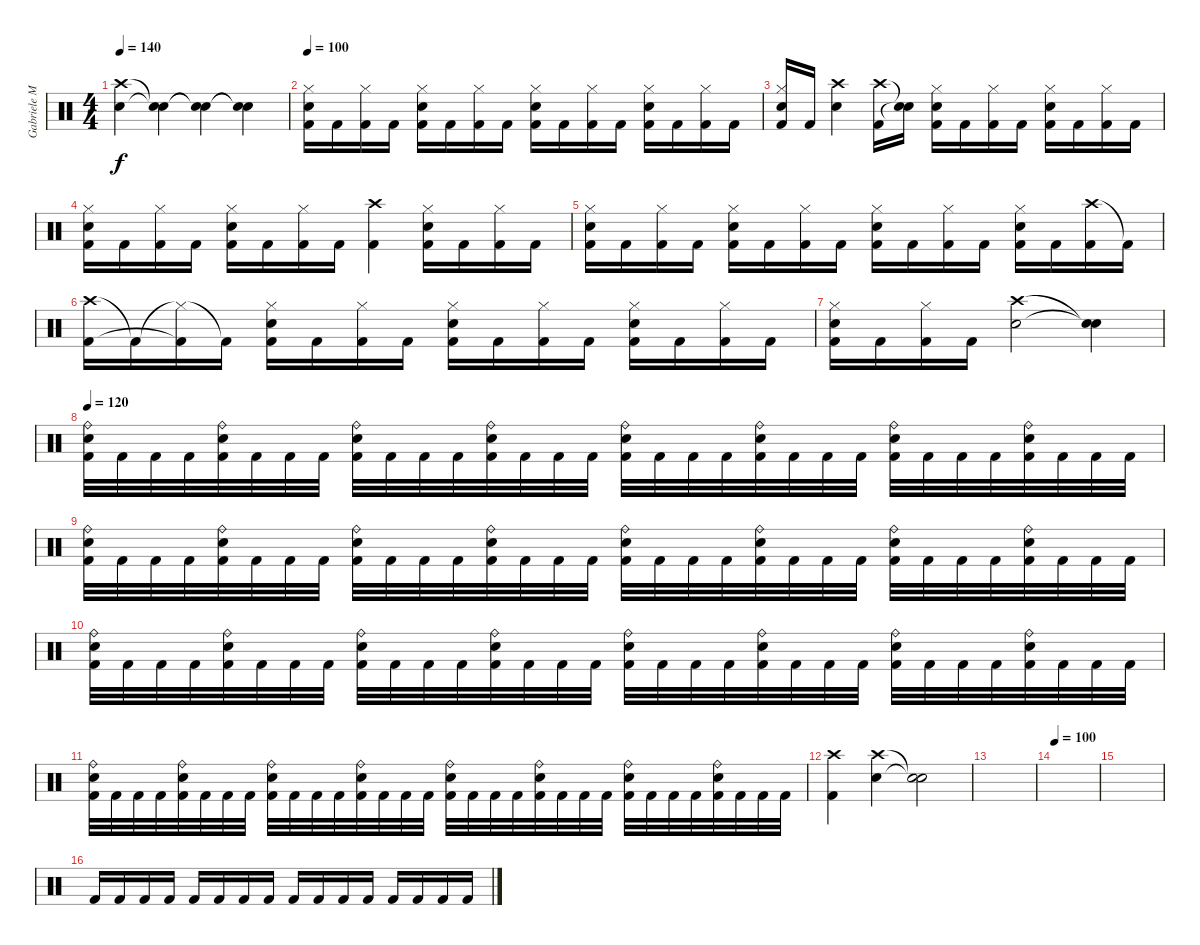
\track ("Gabriele Malatesta" "Gabriele M") {instrument percussion}
\staff {score}
\articulation defaults
\ts (4 4)
\tempo 140
\clef neutral
\ks c
("Crash high (hit)" "Electric Snare (hit)").4{dy f} ("Snare (hit)"{t} "Snare (hit)"{t}).4 ("Snare (hit)"{t} "Snare (hit)"{t}).4 ("Snare (hit)"{t} "Snare (hit)"{t}).4 |
\tempo 100
("Hi-Hat (closed)" "Electric Snare (hit)" "Kick (hit) 2").16 "Kick (hit) 2".16 ("Hi-Hat (closed)" "Kick (hit) 2").16 "Kick (hit) 2".16 ("Hi-Hat (closed)" "Electric Snare (hit)" "Kick (hit) 2").16 "Kick (hit) 2".16 ("Hi-Hat (closed)" "Kick (hit) 2").16 "Kick (hit) 2".16 ("Hi-Hat (closed)" "Electric Snare (hit)" "Kick (hit) 2").16 "Kick (hit) 2".16 ("Hi-Hat (closed)" "Kick (hit) 2").16 "Kick (hit) 2".16 ("Hi-Hat (closed)" "Electric Snare (hit)" "Kick (hit) 2").16 "Kick (hit) 2".16 ("Hi-Hat (closed)" "Kick (hit) 2").16 "Kick (hit) 2".16 |
("Hi-Hat (closed)" "Electric Snare (hit)" "Kick (hit) 2").16 "Kick (hit) 2".16 ("Crash high (hit)" "Electric Snare (hit)").4 ("Crash high (hit)" "Kick (hit) 2").16 ("Snare (hit)"{t} "Snare (hit)"{t}).16 ("Hi-Hat (closed)" "Electric Snare (hit)" "Kick (hit) 2").16 "Kick (hit) 2".16 ("Hi-Hat (closed)" "Kick (hit) 2").16 "Kick (hit) 2".16 ("Hi-Hat (closed)" "Electric Snare (hit)" "Kick (hit) 2").16 "Kick (hit) 2".16 ("Hi-Hat (closed)" "Kick (hit) 2").16 "Kick (hit) 2".16 |
("Hi-Hat (closed)" "Electric Snare (hit)" "Kick (hit) 2").16 "Kick (hit) 2".16 ("Hi-Hat (closed)" "Kick (hit) 2").16 "Kick (hit) 2".16 ("Hi-Hat (closed)" "Electric Snare (hit)" "Kick (hit) 2").16 "Kick (hit) 2".16 ("Hi-Hat (closed)" "Kick (hit) 2").16 "Kick (hit) 2".16 ("Crash high (hit)" "Kick (hit) 2").4 ("Hi-Hat (closed)" "Electric Snare (hit)" "Kick (hit) 2").16 "Kick (hit) 2".16 ("Hi-Hat (closed)" "Kick (hit) 2").16 "Kick (hit) 2".16 |
("Hi-Hat (closed)" "Electric Snare (hit)" "Kick (hit) 2").16 "Kick (hit) 2".16 ("Hi-Hat (closed)" "Kick (hit) 2").16 "Kick (hit) 2".16 ("Hi-Hat (closed)" "Electric Snare (hit)" "Kick (hit) 2").16 "Kick (hit) 2".16 ("Hi-Hat (closed)" "Kick (hit) 2").16 "Kick (hit) 2".16 ("Hi-Hat (closed)" "Electric Snare (hit)" "Kick (hit) 2").16 "Kick (hit) 2".16 ("Hi-Hat (closed)" "Kick (hit) 2").16 "Kick (hit) 2".16 ("Hi-Hat (closed)" "Electric Snare (hit)" "Kick (hit) 2").16 "Kick (hit) 2".16 ("Crash high (hit)" "Kick (hit) 2").16 "Kick (hit) 2"{t}.16 |
("Crash high (hit)" "Kick (hit) 2").16 "Kick (hit) 2"{t}.16 ("Hi-Hat (closed)"{t} "Kick (hit) 2"{t}).16 "Kick (hit) 2"{t}.16 ("Hi-Hat (closed)" "Electric Snare (hit)" "Kick (hit) 2").16 "Kick (hit) 2".16 ("Hi-Hat (closed)" "Kick (hit) 2").16 "Kick (hit) 2".16 ("Hi-Hat (closed)" "Electric Snare (hit)" "Kick (hit) 2").16 "Kick (hit) 2".16 ("Hi-Hat (closed)" "Kick (hit) 2").16 "Kick (hit) 2".16 ("Hi-Hat (closed)" "Electric Snare (hit)" "Kick (hit) 2").16 "Kick (hit) 2".16 ("Hi-Hat (closed)" "Kick (hit) 2").16 "Kick (hit) 2".16 |
("Hi-Hat (closed)" "Electric Snare (hit)" "Kick (hit) 2").16 "Kick (hit) 2".16 ("Hi-Hat (closed)" "Kick (hit) 2").16 "Kick (hit) 2".16 ("Crash high (hit)" "Electric Snare (hit)").2 ("Snare (hit)"{t} "Snare (hit)"{t}).4 |
\tempo 120
("Ride (bell)" "Electric Snare (hit)" "Kick (hit) 2").32 "Kick (hit) 2".32 "Kick (hit) 2".32 "Kick (hit) 2".32 ("Ride (bell)" "Electric Snare (hit)" "Kick (hit) 2").32 "Kick (hit) 2".32 "Kick (hit) 2".32 "Kick (hit) 2".32 ("Ride (bell)" "Electric Snare (hit)" "Kick (hit) 2").32 "Kick (hit) 2".32 "Kick (hit) 2".32 "Kick (hit) 2".32 ("Ride (bell)" "Electric Snare (hit)" "Kick (hit) 2").32 "Kick (hit) 2".32 "Kick (hit) 2".32 "Kick (hit) 2".32 ("Ride (bell)" "Electric Snare (hit)" "Kick (hit) 2").32 "Kick (hit) 2".32 "Kick (hit) 2".32 "Kick (hit) 2".32 ("Ride (bell)" "Electric Snare (hit)" "Kick (hit) 2").32 "Kick (hit) 2".32 "Kick (hit) 2".32 "Kick (hit) 2".32 ("Ride (bell)" "Electric Snare (hit)" "Kick (hit) 2").32 "Kick (hit) 2".32 "Kick (hit) 2".32 "Kick (hit) 2".32 ("Ride (bell)" "Electric Snare (hit)" "Kick (hit) 2").32 "Kick (hit) 2".32 "Kick (hit) 2".32 "Kick (hit) 2".32 |
("Ride (bell)" "Electric Snare (hit)" "Kick (hit) 2").32 "Kick (hit) 2".32 "Kick (hit) 2".32 "Kick (hit) 2".32 ("Ride (bell)" "Electric Snare (hit)" "Kick (hit) 2").32 "Kick (hit) 2".32 "Kick (hit) 2".32 "Kick (hit) 2".32 ("Ride (bell)" "Electric Snare (hit)" "Kick (hit) 2").32 "Kick (hit) 2".32 "Kick (hit) 2".32 "Kick (hit) 2".32 ("Ride (bell)" "Electric Snare (hit)" "Kick (hit) 2").32 "Kick (hit) 2".32 "Kick (hit) 2".32 "Kick (hit) 2".32 ("Ride (bell)" "Electric Snare (hit)" "Kick (hit) 2").32 "Kick (hit) 2".32 "Kick (hit) 2".32 "Kick (hit) 2".32 ("Ride (bell)" "Electric Snare (hit)" "Kick (hit) 2").32 "Kick (hit) 2".32 "Kick (hit) 2".32 "Kick (hit) 2".32 ("Ride (bell)" "Electric Snare (hit)" "Kick (hit) 2").32 "Kick (hit) 2".32 "Kick (hit) 2".32 "Kick (hit) 2".32 ("Ride (bell)" "Electric Snare (hit)" "Kick (hit) 2").32 "Kick (hit) 2".32 "Kick (hit) 2".32 "Kick (hit) 2".32 |
("Ride (bell)" "Electric Snare (hit)" "Kick (hit) 2").32 "Kick (hit) 2".32 "Kick (hit) 2".32 "Kick (hit) 2".32 ("Ride (bell)" "Electric Snare (hit)" "Kick (hit) 2").32 "Kick (hit) 2".32 "Kick (hit) 2".32 "Kick (hit) 2".32 ("Ride (bell)" "Electric Snare (hit)" "Kick (hit) 2").32 "Kick (hit) 2".32 "Kick (hit) 2".32 "Kick (hit) 2".32 ("Ride (bell)" "Electric Snare (hit)" "Kick (hit) 2").32 "Kick (hit) 2".32 "Kick (hit) 2".32 "Kick (hit) 2".32 ("Ride (bell)" "Electric Snare (hit)" "Kick (hit) 2").32 "Kick (hit) 2".32 "Kick (hit) 2".32 "Kick (hit) 2".32 ("Ride (bell)" "Electric Snare (hit)" "Kick (hit) 2").32 "Kick (hit) 2".32 "Kick (hit) 2".32 "Kick (hit) 2".32 ("Ride (bell)" "Electric Snare (hit)" "Kick (hit) 2").32 "Kick (hit) 2".32 "Kick (hit) 2".32 "Kick (hit) 2".32 ("Ride (bell)" "Electric Snare (hit)" "Kick (hit) 2").32 "Kick (hit) 2".32 "Kick (hit) 2".32 "Kick (hit) 2".32 |
("Ride (bell)" "Electric Snare (hit)" "Kick (hit) 2").32 "Kick (hit) 2".32 "Kick (hit) 2".32 "Kick (hit) 2".32 ("Ride (bell)" "Electric Snare (hit)" "Kick (hit) 2").32 "Kick (hit) 2".32 "Kick (hit) 2".32 "Kick (hit) 2".32 ("Ride (bell)" "Electric Snare (hit)" "Kick (hit) 2").32 "Kick (hit) 2".32 "Kick (hit) 2".32 "Kick (hit) 2".32 ("Ride (bell)" "Electric Snare (hit)" "Kick (hit) 2").32 "Kick (hit) 2".32 "Kick (hit) 2".32 "Kick (hit) 2".32 ("Ride (bell)" "Electric Snare (hit)" "Kick (hit) 2").32 "Kick (hit) 2".32 "Kick (hit) 2".32 "Kick (hit) 2".32 ("Ride (bell)" "Electric Snare (hit)" "Kick (hit) 2").32 "Kick (hit) 2".32 "Kick (hit) 2".32 "Kick (hit) 2".32 ("Ride (bell)" "Electric Snare (hit)" "Kick (hit) 2").32 "Kick (hit) 2".32 "Kick (hit) 2".32 "Kick (hit) 2".32 ("Ride (bell)" "Electric Snare (hit)" "Kick (hit) 2").32 "Kick (hit) 2".32 "Kick (hit) 2".32 "Kick (hit) 2".32 |
("Crash high (hit)" "Kick (hit) 2").4 ("Crash high (hit)" "Electric Snare (hit)").4 ("Snare (hit)"{t} "Snare (hit)"{t}).2 |
|
\tempo 100
|
|
"Kick (hit) 2".16 "Kick (hit) 2".16 "Kick (hit) 2".16 "Kick (hit) 2".16 "Kick (hit) 2".16 "Kick (hit) 2".16 "Kick (hit) 2".16 "Kick (hit) 2".16 "Kick (hit) 2".16 "Kick (hit) 2".16 "Kick (hit) 2".16 "Kick (hit) 2".16 "Kick (hit) 2".16 "Kick (hit) 2".16 "Kick (hit) 2".16 "Kick (hit) 2".16
